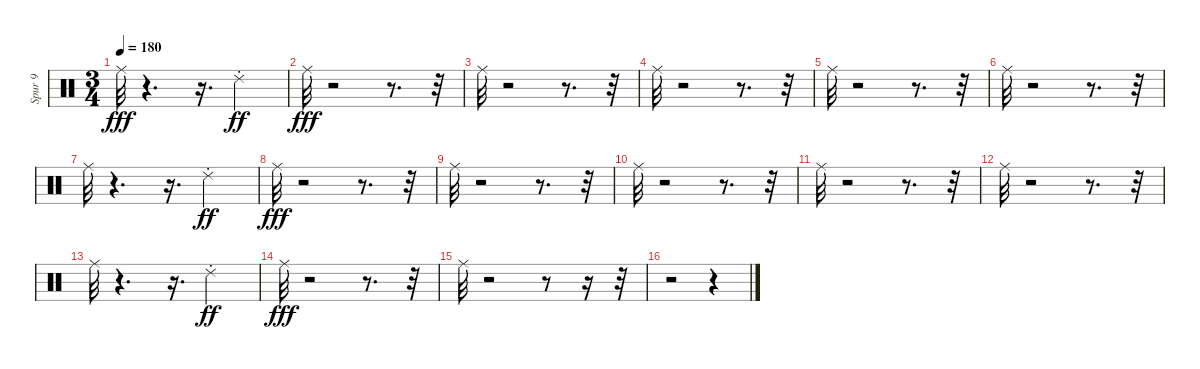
\track ("Spur 9" "Spur 9") {instrument percussion}
\staff {score}
\articulation defaults
\ts (3 4)
\tempo 180
\clef neutral
\ks c "Ride (middle)".32{dy fff}
r.4{d} r.16{d} "Ride (choke) 2".4{dy ff} |
"Ride (middle)".32{dy fff} r.2 r.8{d} r.32 |
"Ride (middle)".32 r.2 r.8{d} r.32 |
"Ride (middle)".32 r.2 r.8{d} r.32 |
"Ride (middle)".32 r.2 r.8{d} r.32 |
"Ride (middle)".32 r.2 r.8{d} r.32 |
"Ride (middle)".32 r.4{d} r.16{d} "Ride (choke) 2".4{dy ff} |
"Ride (middle)".32{dy fff} r.2 r.8{d} r.32 |
"Ride (middle)".32 r.2 r.8{d} r.32 |
"Ride (middle)".32 r.2 r.8{d} r.32 |
"Ride (middle)".32 r.2 r.8{d} r.32 |
"Ride (middle)".32 r.2 r.8{d} r.32 |
"Ride (middle)".32 r.4{d} r.16{d} "Ride (choke) 2".4{dy ff} |
"Ride (middle)".32{dy fff} r.2 r.8{d} r.32 |
"Ride (middle)".32 r.2 r.8 r.16 r.32 |
r.2 r.4
